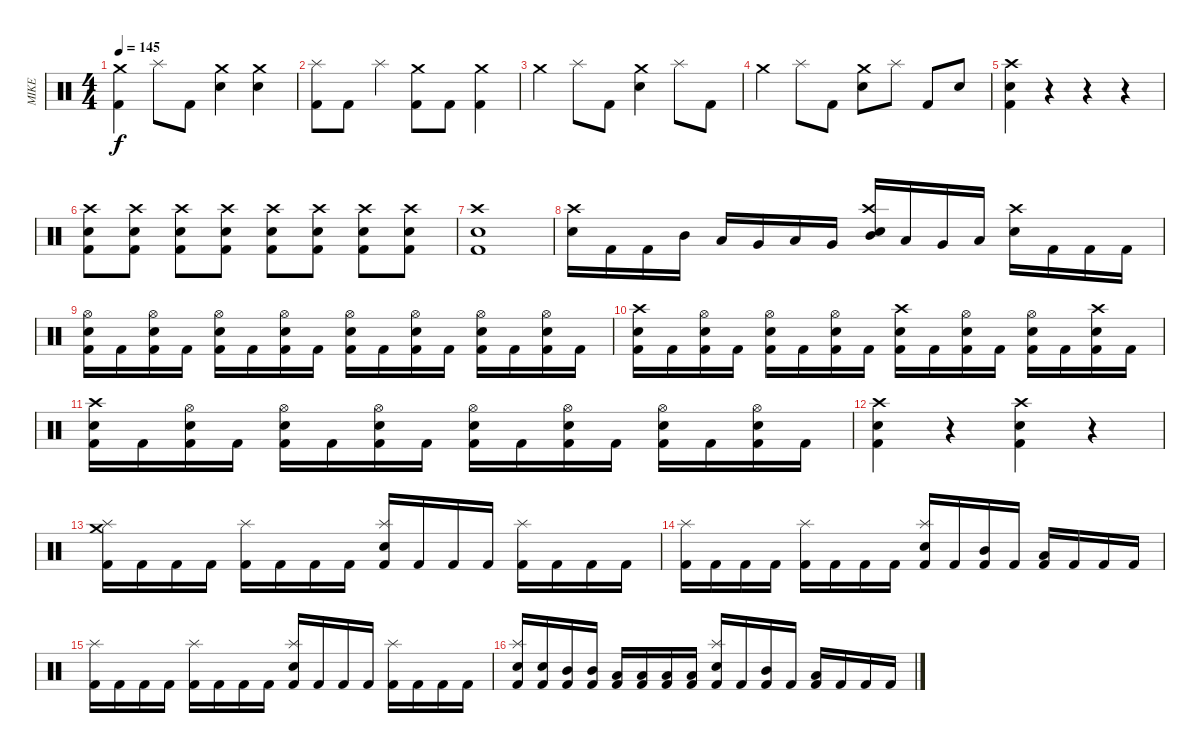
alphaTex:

\track ("MIKE" "MIKE") {instrument percussion}
\staff {score}
\articulation defaults
\ts (4 4)
\tempo 145
\clef neutral
\ks c
("Crash medium (hit)" "Kick (hit) 2").4{dy f} "Splash (hit)".8 "Kick (hit) 2".8 ("Crash medium (hit)" "Electric Snare (hit)").4 ("Crash medium (hit)" "Electric Snare (hit)").4 |
("Splash (hit)" "Kick (hit) 2").8 "Kick (hit) 2".8 "Splash (hit)".4 ("Crash medium (hit)" "Kick (hit) 2").8 "Kick (hit) 2".8 ("Crash medium (hit)" "Kick (hit) 2").4 |
"Crash medium (hit)".4 "Splash (hit)".8 "Kick (hit) 2".8 ("Electric Snare (hit)" "Crash medium (hit)").4 "Splash (hit)".8 "Kick (hit) 2".8 |
"Crash medium (hit)".4 "Splash (hit)".8 "Kick (hit) 2".8 ("Electric Snare (hit)" "Crash medium (hit)").8 "Splash (hit)".8 "Kick (hit) 2".8 "Electric Snare (hit)".8 |
("Kick (hit) 2" "Crash high (hit)" "Electric Snare (hit)").4 r.4 r.4 r.4 |
("Crash high (hit)" "Electric Snare (hit)" "Kick (hit) 2").8 ("Crash high (hit)" "Electric Snare (hit)" "Kick (hit) 2").8 ("Crash high (hit)" "Electric Snare (hit)" "Kick (hit) 2").8 ("Crash high (hit)" "Electric Snare (hit)" "Kick (hit) 2").8 ("Crash high (hit)" "Electric Snare (hit)" "Kick (hit) 2").8 ("Crash high (hit)" "Electric Snare (hit)" "Kick (hit) 2").8 ("Crash high (hit)" "Electric Snare (hit)" "Kick (hit) 2").8 ("Crash high (hit)" "Electric Snare (hit)" "Kick (hit) 2").8 |
("Crash high (hit)" "Electric Snare (hit)" "Kick (hit) 2").1 |
("Crash high (hit)" "Electric Snare (hit)").16 "Kick (hit) 2".16 "Kick (hit) 2".16 "Mid Tom (hit)".16 "Low Tom (hit)".16 "Very Low Tom (hit)".16 "Low Floor Tom (hit)".16 "Very Low Tom (hit)".16 ("Crash high (hit)" "Electric Snare (hit)" "Mid Tom (hit)").16 "Low Tom (hit)".16 "Very Low Tom (hit)".16 "Low Floor Tom (hit)".16 ("Crash high (hit)" "Electric Snare (hit)").16 "Kick (hit) 2".16 "Kick (hit) 2".16 "Kick (hit) 2".16 |
("Hi-Hat (open)" "Electric Snare (hit)" "Kick (hit) 2").16 "Kick (hit) 2".16 ("Hi-Hat (open)" "Electric Snare (hit)" "Kick (hit) 2").16 "Kick (hit) 2".16 ("Hi-Hat (open)" "Electric Snare (hit)" "Kick (hit) 2").16 "Kick (hit) 2".16 ("Hi-Hat (open)" "Electric Snare (hit)" "Kick (hit) 2").16 "Kick (hit) 2".16 ("Hi-Hat (open)" "Electric Snare (hit)" "Kick (hit) 2").16 "Kick (hit) 2".16 ("Hi-Hat (open)" "Electric Snare (hit)" "Kick (hit) 2").16 "Kick (hit) 2".16 ("Hi-Hat (open)" "Electric Snare (hit)" "Kick (hit) 2").16 "Kick (hit) 2".16 ("Hi-Hat (open)" "Electric Snare (hit)" "Kick (hit) 2").16 "Kick (hit) 2".16 |
("Crash high (hit)" "Electric Snare (hit)" "Kick (hit) 2").16 "Kick (hit) 2".16 ("Hi-Hat (open)" "Electric Snare (hit)" "Kick (hit) 2").16 "Kick (hit) 2".16 ("Hi-Hat (open)" "Electric Snare (hit)" "Kick (hit) 2").16 "Kick (hit) 2".16 ("Hi-Hat (open)" "Electric Snare (hit)" "Kick (hit) 2").16 "Kick (hit) 2".16 ("Crash high (hit)" "Electric Snare (hit)" "Kick (hit) 2").16 "Kick (hit) 2".16 ("Hi-Hat (open)" "Electric Snare (hit)" "Kick (hit) 2").16 "Kick (hit) 2".16 ("Hi-Hat (open)" "Electric Snare (hit)" "Kick (hit) 2").16 "Kick (hit) 2".16 ("Crash high (hit)" "Electric Snare (hit)" "Kick (hit) 2").16 "Kick (hit) 2".16 |
("Crash high (hit)" "Electric Snare (hit)" "Kick (hit) 2").16 "Kick (hit) 2".16 ("Hi-Hat (open)" "Electric Snare (hit)" "Kick (hit) 2").16 "Kick (hit) 2".16 ("Hi-Hat (open)" "Electric Snare (hit)" "Kick (hit) 2").16 "Kick (hit) 2".16 ("Hi-Hat (open)" "Electric Snare (hit)" "Kick (hit) 2").16 "Kick (hit) 2".16 ("Hi-Hat (open)" "Electric Snare (hit)" "Kick (hit) 2").16 "Kick (hit) 2".16 ("Hi-Hat (open)" "Electric Snare (hit)" "Kick (hit) 2").16 "Kick (hit) 2".16 ("Hi-Hat (open)" "Electric Snare (hit)" "Kick (hit) 2").16 "Kick (hit) 2".16 ("Hi-Hat (open)" "Electric Snare (hit)" "Kick (hit) 2").16 "Kick (hit) 2".16 |
("Crash high (hit)" "Electric Snare (hit)" "Kick (hit) 2").4 r.4 ("Crash high (hit)" "Electric Snare (hit)" "Kick (hit) 2").4 r.4 |
("Crash medium (hit)" "Splash (hit)" "Kick (hit) 2").16 "Kick (hit) 2".16 "Kick (hit) 2".16 "Kick (hit) 2".16 ("Splash (hit)" "Kick (hit) 2").16 "Kick (hit) 2".16 "Kick (hit) 2".16 "Kick (hit) 2".16 ("Splash (hit)" "Electric Snare (hit)" "Kick (hit) 2").16 "Kick (hit) 2".16 "Kick (hit) 2".16 "Kick (hit) 2".16 ("Splash (hit)" "Kick (hit) 2").16 "Kick (hit) 2".16 "Kick (hit) 2".16 "Kick (hit) 2".16 |
("Splash (hit)" "Kick (hit) 2").16 "Kick (hit) 2".16 "Kick (hit) 2".16 "Kick (hit) 2".16 ("Splash (hit)" "Kick (hit) 2").16 "Kick (hit) 2".16 "Kick (hit) 2".16 "Kick (hit) 2".16 ("Splash (hit)" "Electric Snare (hit)" "Kick (hit) 2").16 "Kick (hit) 2".16 ("Mid Tom (hit)" "Kick (hit) 2").16 "Kick (hit) 2".16 ("Low Tom (hit)" "Kick (hit) 2").16 "Kick (hit) 2".16 "Kick (hit) 2".16 "Kick (hit) 2".16 |
("Splash (hit)" "Kick (hit) 2").16 "Kick (hit) 2".16 "Kick (hit) 2".16 "Kick (hit) 2".16 ("Splash (hit)" "Kick (hit) 2").16 "Kick (hit) 2".16 "Kick (hit) 2".16 "Kick (hit) 2".16 ("Splash (hit)" "Electric Snare (hit)" "Kick (hit) 2").16 "Kick (hit) 2".16 "Kick (hit) 2".16 "Kick (hit) 2".16 ("Splash (hit)" "Kick (hit) 2").16 "Kick (hit) 2".16 "Kick (hit) 2".16 "Kick (hit) 2".16 |
("Splash (hit)" "Electric Snare (hit)" "Kick (hit) 2").16 ("Electric Snare (hit)" "Kick (hit) 2").16 ("Mid Tom (hit)" "Kick (hit) 2").16 ("Mid Tom (hit)" "Kick (hit) 2").16 ("Low Tom (hit)" "Kick (hit) 2").16 ("Low Tom (hit)" "Kick (hit) 2").16 ("Low Floor Tom (hit)" "Kick (hit) 2").16 ("Low Floor Tom (hit)" "Kick (hit) 2").16 ("Splash (hit)" "Electric Snare (hit)" "Kick (hit) 2").16 "Kick (hit) 2".16 ("Mid Tom (hit)" "Kick (hit) 2").16 "Kick (hit) 2".16 ("Low Tom (hit)" "Kick (hit) 2").16 "Kick (hit) 2".16 "Kick (hit) 2".16 "Kick (hit) 2".16
